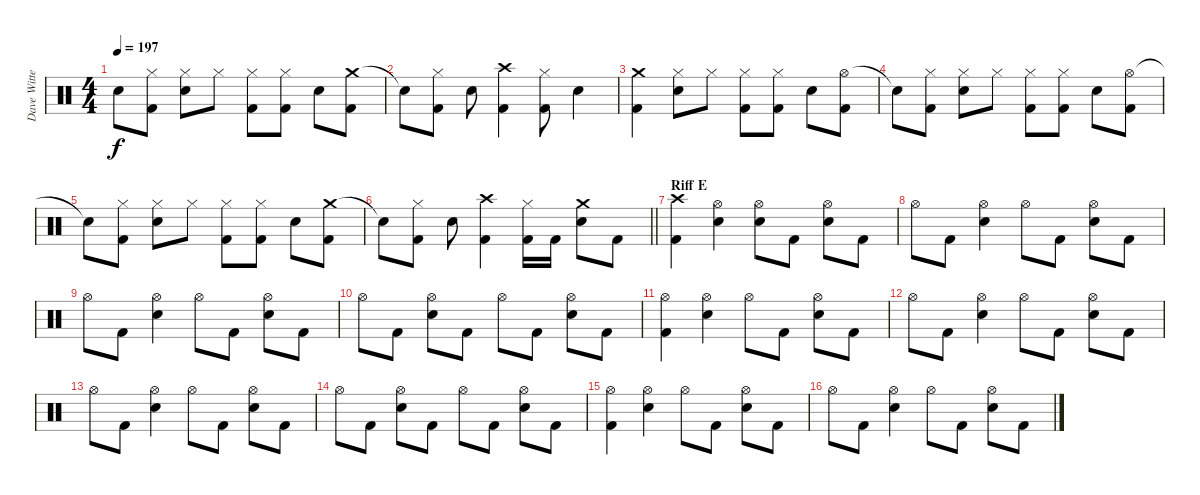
\track ("Dave Witte" "Dave Witte") {instrument percussion}
\staff {score}
\articulation defaults
\ts (4 4)
\tempo 197
\clef neutral
\ks c "Snare (hit)"{t}.8{dy f}
("Hi-Hat (closed)" "Kick (hit) 2").8 ("Hi-Hat (closed)" "Electric Snare (hit)").8 "Hi-Hat (closed)".8 ("Hi-Hat (closed)" "Kick (hit) 2").8 ("Hi-Hat (closed)" "Kick (hit) 2").8 "Electric Snare (hit)".8 ("Crash medium (hit)" "Kick (hit) 2").8 |
"Snare (hit)"{t}.8 ("Hi-Hat (closed)" "Kick (hit) 2").8 "Electric Snare (hit)".8 ("Crash high (hit)" "Kick (hit) 2").4 ("Hi-Hat (closed)" "Kick (hit) 2").8 "Electric Snare (hit)".4 |
("Crash medium (hit)" "Kick (hit) 2").4 ("Hi-Hat (closed)" "Electric Snare (hit)").8 "Hi-Hat (closed)".8 ("Hi-Hat (closed)" "Kick (hit) 2").8 ("Hi-Hat (closed)" "Kick (hit) 2").8 "Electric Snare (hit)".8 ("Hi-Hat (open)" "Kick (hit) 2").8 |
"Snare (hit)"{t}.8 ("Hi-Hat (closed)" "Kick (hit) 2").8 ("Hi-Hat (closed)" "Electric Snare (hit)").8 "Hi-Hat (closed)".8 ("Hi-Hat (closed)" "Kick (hit) 2").8 ("Hi-Hat (closed)" "Kick (hit) 2").8 "Electric Snare (hit)".8 ("Hi-Hat (open)" "Kick (hit) 2").8 |
"Snare (hit)"{t}.8 ("Hi-Hat (closed)" "Kick (hit) 2").8 ("Hi-Hat (closed)" "Electric Snare (hit)").8 "Hi-Hat (closed)".8 ("Hi-Hat (closed)" "Kick (hit) 2").8 ("Hi-Hat (closed)" "Kick (hit) 2").8 "Electric Snare (hit)".8 ("Crash medium (hit)" "Kick (hit) 2").8 |
\barLineRight lightlight "Snare (hit)"{t}.8
("Hi-Hat (closed)" "Kick (hit) 2").8 "Electric Snare (hit)".8 ("Crash high (hit)" "Kick (hit) 2").4 ("Hi-Hat (closed)" "Kick (hit) 2").16 "Kick (hit) 2".16 ("Crash medium (hit)" "Electric Snare (hit)").8 "Kick (hit) 2".8 |
\section ("" "Riff E")
("Crash high (hit)" "Kick (hit) 2").4 ("Hi-Hat (open)" "Electric Snare (hit)").4 ("Hi-Hat (open)" "Electric Snare (hit)").8 "Kick (hit) 2".8 ("Hi-Hat (open)" "Electric Snare (hit)").8 "Kick (hit) 2".8 |
"Hi-Hat (open)".8 "Kick (hit) 2".8 ("Hi-Hat (open)" "Electric Snare (hit)").4 "Hi-Hat (open)".8 "Kick (hit) 2".8 ("Hi-Hat (open)" "Electric Snare (hit)").8 "Kick (hit) 2".8 |
"Hi-Hat (open)".8 "Kick (hit) 2".8 ("Hi-Hat (open)" "Electric Snare (hit)").4 "Hi-Hat (open)".8 "Kick (hit) 2".8 ("Hi-Hat (open)" "Electric Snare (hit)").8 "Kick (hit) 2".8 |
"Hi-Hat (open)".8 "Kick (hit) 2".8 ("Hi-Hat (open)" "Electric Snare (hit)").8 "Kick (hit) 2".8 "Hi-Hat (open)".8 "Kick (hit) 2".8 ("Hi-Hat (open)" "Electric Snare (hit)").8 "Kick (hit) 2".8 |
("Hi-Hat (open)" "Kick (hit) 2").4 ("Hi-Hat (open)" "Electric Snare (hit)").4 "Hi-Hat (open)".8 "Kick (hit) 2".8 ("Hi-Hat (open)" "Electric Snare (hit)").8 "Kick (hit) 2".8 |
"Hi-Hat (open)".8 "Kick (hit) 2".8 ("Hi-Hat (open)" "Electric Snare (hit)").4 "Hi-Hat (open)".8 "Kick (hit) 2".8 ("Hi-Hat (open)" "Electric Snare (hit)").8 "Kick (hit) 2".8 |
"Hi-Hat (open)".8 "Kick (hit) 2".8 ("Hi-Hat (open)" "Electric Snare (hit)").4 "Hi-Hat (open)".8 "Kick (hit) 2".8 ("Hi-Hat (open)" "Electric Snare (hit)").8 "Kick (hit) 2".8 |
"Hi-Hat (open)".8 "Kick (hit) 2".8 ("Hi-Hat (open)" "Electric Snare (hit)").8 "Kick (hit) 2".8 "Hi-Hat (open)".8 "Kick (hit) 2".8 ("Hi-Hat (open)" "Electric Snare (hit)").8 "Kick (hit) 2".8 |
("Hi-Hat (open)" "Kick (hit) 2").4 ("Hi-Hat (open)" "Electric Snare (hit)").4 "Hi-Hat (open)".8 "Kick (hit) 2".8 ("Hi-Hat (open)" "Electric Snare (hit)").8 "Kick (hit) 2".8 |
"Hi-Hat (open)".8 "Kick (hit) 2".8 ("Hi-Hat (open)" "Electric Snare (hit)").4 "Hi-Hat (open)".8 "Kick (hit) 2".8 ("Hi-Hat (open)" "Electric Snare (hit)").8 "Kick (hit) 2".8
